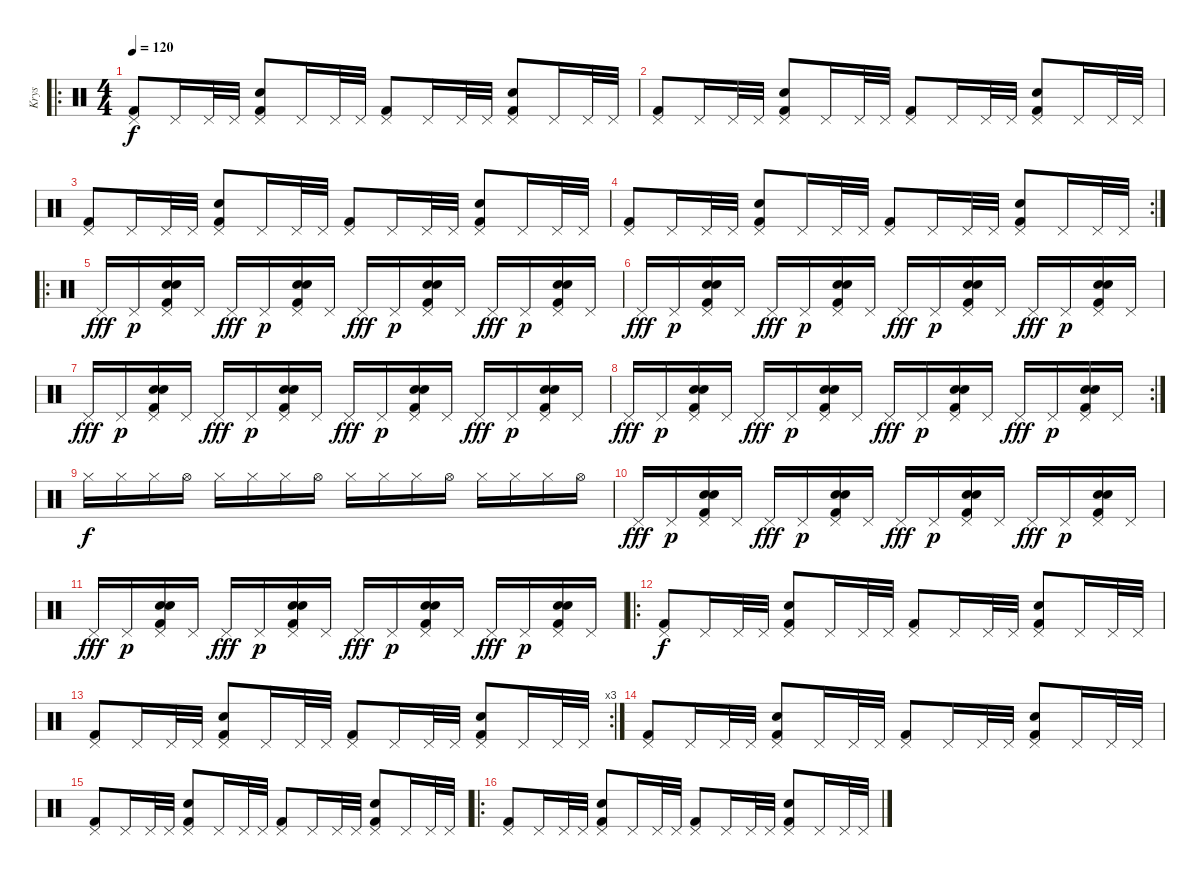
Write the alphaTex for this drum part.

\track ("Krys" "Krys") {instrument percussion}
\staff {score}
\articulation defaults
\ro
\ts (4 4)
\tempo 120
\clef neutral
\ks c
("Pedal Hi-Hat (hit)" "Kick (hit) 2").8{dy f} "Pedal Hi-Hat (hit)".16 "Pedal Hi-Hat (hit)".32 "Pedal Hi-Hat (hit)".32 ("Pedal Hi-Hat (hit)" "Snare (hit) 2" "Kick (hit) 2").8 "Pedal Hi-Hat (hit)".16 "Pedal Hi-Hat (hit)".32 "Pedal Hi-Hat (hit)".32 ("Pedal Hi-Hat (hit)" "Kick (hit) 2").8 "Pedal Hi-Hat (hit)".16 "Pedal Hi-Hat (hit)".32 "Pedal Hi-Hat (hit)".32 ("Pedal Hi-Hat (hit)" "Snare (hit) 2" "Kick (hit) 2").8 "Pedal Hi-Hat (hit)".16 "Pedal Hi-Hat (hit)".32 "Pedal Hi-Hat (hit)".32 |
("Pedal Hi-Hat (hit)" "Kick (hit) 2").8 "Pedal Hi-Hat (hit)".16 "Pedal Hi-Hat (hit)".32 "Pedal Hi-Hat (hit)".32 ("Pedal Hi-Hat (hit)" "Snare (hit) 2" "Kick (hit) 2").8 "Pedal Hi-Hat (hit)".16 "Pedal Hi-Hat (hit)".32 "Pedal Hi-Hat (hit)".32 ("Pedal Hi-Hat (hit)" "Kick (hit) 2").8 "Pedal Hi-Hat (hit)".16 "Pedal Hi-Hat (hit)".32 "Pedal Hi-Hat (hit)".32 ("Pedal Hi-Hat (hit)" "Snare (hit) 2" "Kick (hit) 2").8 "Pedal Hi-Hat (hit)".16 "Pedal Hi-Hat (hit)".32 "Pedal Hi-Hat (hit)".32 |
("Pedal Hi-Hat (hit)" "Kick (hit) 2").8 "Pedal Hi-Hat (hit)".16 "Pedal Hi-Hat (hit)".32 "Pedal Hi-Hat (hit)".32 ("Pedal Hi-Hat (hit)" "Snare (hit) 2" "Kick (hit) 2").8 "Pedal Hi-Hat (hit)".16 "Pedal Hi-Hat (hit)".32 "Pedal Hi-Hat (hit)".32 ("Pedal Hi-Hat (hit)" "Kick (hit) 2").8 "Pedal Hi-Hat (hit)".16 "Pedal Hi-Hat (hit)".32 "Pedal Hi-Hat (hit)".32 ("Pedal Hi-Hat (hit)" "Snare (hit) 2" "Kick (hit) 2").8 "Pedal Hi-Hat (hit)".16 "Pedal Hi-Hat (hit)".32 "Pedal Hi-Hat (hit)".32 |
\rc 2
("Pedal Hi-Hat (hit)" "Kick (hit) 2").8 "Pedal Hi-Hat (hit)".16 "Pedal Hi-Hat (hit)".32 "Pedal Hi-Hat (hit)".32 ("Pedal Hi-Hat (hit)" "Snare (hit) 2" "Kick (hit) 2").8 "Pedal Hi-Hat (hit)".16 "Pedal Hi-Hat (hit)".32 "Pedal Hi-Hat (hit)".32 ("Pedal Hi-Hat (hit)" "Kick (hit) 2").8 "Pedal Hi-Hat (hit)".16 "Pedal Hi-Hat (hit)".32 "Pedal Hi-Hat (hit)".32 ("Pedal Hi-Hat (hit)" "Snare (hit) 2" "Kick (hit) 2").8 "Pedal Hi-Hat (hit)".16 "Pedal Hi-Hat (hit)".32 "Pedal Hi-Hat (hit)".32 |
\ro "Pedal Hi-Hat (hit)".16{dy fff} "Pedal Hi-Hat (hit)".16{dy p}
("Pedal Hi-Hat (hit)" "Kick (hit) 2" "Snare (hit) 2" "Snare (hit) 2").16 "Pedal Hi-Hat (hit)".16 "Pedal Hi-Hat (hit)".16{dy fff} "Pedal Hi-Hat (hit)".16{dy p} ("Pedal Hi-Hat (hit)" "Kick (hit) 2" "Snare (hit) 2" "Snare (hit) 2").16 "Pedal Hi-Hat (hit)".16 "Pedal Hi-Hat (hit)".16{dy fff} "Pedal Hi-Hat (hit)".16{dy p} ("Pedal Hi-Hat (hit)" "Kick (hit) 2" "Snare (hit) 2" "Snare (hit) 2").16 "Pedal Hi-Hat (hit)".16 "Pedal Hi-Hat (hit)".16{dy fff} "Pedal Hi-Hat (hit)".16{dy p} ("Pedal Hi-Hat (hit)" "Kick (hit) 2" "Snare (hit) 2" "Snare (hit) 2").16 "Pedal Hi-Hat (hit)".16 |
"Pedal Hi-Hat (hit)".16{dy fff} "Pedal Hi-Hat (hit)".16{dy p} ("Pedal Hi-Hat (hit)" "Kick (hit) 2" "Snare (hit) 2" "Snare (hit) 2").16 "Pedal Hi-Hat (hit)".16 "Pedal Hi-Hat (hit)".16{dy fff} "Pedal Hi-Hat (hit)".16{dy p} ("Pedal Hi-Hat (hit)" "Kick (hit) 2" "Snare (hit) 2" "Snare (hit) 2").16 "Pedal Hi-Hat (hit)".16 "Pedal Hi-Hat (hit)".16{dy fff} "Pedal Hi-Hat (hit)".16{dy p} ("Pedal Hi-Hat (hit)" "Kick (hit) 2" "Snare (hit) 2" "Snare (hit) 2").16 "Pedal Hi-Hat (hit)".16 "Pedal Hi-Hat (hit)".16{dy fff} "Pedal Hi-Hat (hit)".16{dy p} ("Pedal Hi-Hat (hit)" "Kick (hit) 2" "Snare (hit) 2" "Snare (hit) 2").16 "Pedal Hi-Hat (hit)".16 |
"Pedal Hi-Hat (hit)".16{dy fff} "Pedal Hi-Hat (hit)".16{dy p} ("Pedal Hi-Hat (hit)" "Kick (hit) 2" "Snare (hit) 2" "Snare (hit) 2").16 "Pedal Hi-Hat (hit)".16 "Pedal Hi-Hat (hit)".16{dy fff} "Pedal Hi-Hat (hit)".16{dy p} ("Pedal Hi-Hat (hit)" "Kick (hit) 2" "Snare (hit) 2" "Snare (hit) 2").16 "Pedal Hi-Hat (hit)".16 "Pedal Hi-Hat (hit)".16{dy fff} "Pedal Hi-Hat (hit)".16{dy p} ("Pedal Hi-Hat (hit)" "Kick (hit) 2" "Snare (hit) 2" "Snare (hit) 2").16 "Pedal Hi-Hat (hit)".16 "Pedal Hi-Hat (hit)".16{dy fff} "Pedal Hi-Hat (hit)".16{dy p} ("Pedal Hi-Hat (hit)" "Kick (hit) 2" "Snare (hit) 2" "Snare (hit) 2").16 "Pedal Hi-Hat (hit)".16 |
\rc 2 "Pedal Hi-Hat (hit)".16{dy fff} "Pedal Hi-Hat (hit)".16{dy p}
("Pedal Hi-Hat (hit)" "Kick (hit) 2" "Snare (hit) 2" "Snare (hit) 2").16 "Pedal Hi-Hat (hit)".16 "Pedal Hi-Hat (hit)".16{dy fff} "Pedal Hi-Hat (hit)".16{dy p} ("Pedal Hi-Hat (hit)" "Kick (hit) 2" "Snare (hit) 2" "Snare (hit) 2").16 "Pedal Hi-Hat (hit)".16 "Pedal Hi-Hat (hit)".16{dy fff} "Pedal Hi-Hat (hit)".16{dy p} ("Pedal Hi-Hat (hit)" "Kick (hit) 2" "Snare (hit) 2" "Snare (hit) 2").16 "Pedal Hi-Hat (hit)".16 "Pedal Hi-Hat (hit)".16{dy fff} "Pedal Hi-Hat (hit)".16{dy p} ("Pedal Hi-Hat (hit)" "Kick (hit) 2" "Snare (hit) 2" "Snare (hit) 2").16 "Pedal Hi-Hat (hit)".16 |
"Hi-Hat (closed)".16{dy f} "Hi-Hat (closed)".16 "Hi-Hat (closed)".16 "Hi-Hat (open)".16 "Hi-Hat (closed)".16 "Hi-Hat (closed)".16 "Hi-Hat (closed)".16 "Hi-Hat (open)".16 "Hi-Hat (closed)".16 "Hi-Hat (closed)".16 "Hi-Hat (closed)".16 "Hi-Hat (open)".16 "Hi-Hat (closed)".16 "Hi-Hat (closed)".16 "Hi-Hat (closed)".16 "Hi-Hat (open)".16 |
"Pedal Hi-Hat (hit)".16{dy fff} "Pedal Hi-Hat (hit)".16{dy p} ("Pedal Hi-Hat (hit)" "Kick (hit) 2" "Snare (hit) 2" "Snare (hit) 2").16 "Pedal Hi-Hat (hit)".16 "Pedal Hi-Hat (hit)".16{dy fff} "Pedal Hi-Hat (hit)".16{dy p} ("Pedal Hi-Hat (hit)" "Kick (hit) 2" "Snare (hit) 2" "Snare (hit) 2").16 "Pedal Hi-Hat (hit)".16 "Pedal Hi-Hat (hit)".16{dy fff} "Pedal Hi-Hat (hit)".16{dy p} ("Pedal Hi-Hat (hit)" "Kick (hit) 2" "Snare (hit) 2" "Snare (hit) 2").16 "Pedal Hi-Hat (hit)".16 "Pedal Hi-Hat (hit)".16{dy fff} "Pedal Hi-Hat (hit)".16{dy p} ("Pedal Hi-Hat (hit)" "Kick (hit) 2" "Snare (hit) 2" "Snare (hit) 2").16 "Pedal Hi-Hat (hit)".16 |
"Pedal Hi-Hat (hit)".16{dy fff} "Pedal Hi-Hat (hit)".16{dy p} ("Pedal Hi-Hat (hit)" "Kick (hit) 2" "Snare (hit) 2" "Snare (hit) 2").16 "Pedal Hi-Hat (hit)".16 "Pedal Hi-Hat (hit)".16{dy fff} "Pedal Hi-Hat (hit)".16{dy p} ("Pedal Hi-Hat (hit)" "Kick (hit) 2" "Snare (hit) 2" "Snare (hit) 2").16 "Pedal Hi-Hat (hit)".16 "Pedal Hi-Hat (hit)".16{dy fff} "Pedal Hi-Hat (hit)".16{dy p} ("Pedal Hi-Hat (hit)" "Kick (hit) 2" "Snare (hit) 2" "Snare (hit) 2").16 "Pedal Hi-Hat (hit)".16 "Pedal Hi-Hat (hit)".16{dy fff} "Pedal Hi-Hat (hit)".16{dy p} ("Pedal Hi-Hat (hit)" "Kick (hit) 2" "Snare (hit) 2" "Snare (hit) 2").16 "Pedal Hi-Hat (hit)".16 |
\ro
("Pedal Hi-Hat (hit)" "Kick (hit) 2").8{dy f} "Pedal Hi-Hat (hit)".16 "Pedal Hi-Hat (hit)".32 "Pedal Hi-Hat (hit)".32 ("Pedal Hi-Hat (hit)" "Snare (hit) 2" "Kick (hit) 2").8 "Pedal Hi-Hat (hit)".16 "Pedal Hi-Hat (hit)".32 "Pedal Hi-Hat (hit)".32 ("Pedal Hi-Hat (hit)" "Kick (hit) 2").8 "Pedal Hi-Hat (hit)".16 "Pedal Hi-Hat (hit)".32 "Pedal Hi-Hat (hit)".32 ("Pedal Hi-Hat (hit)" "Snare (hit) 2" "Kick (hit) 2").8 "Pedal Hi-Hat (hit)".16 "Pedal Hi-Hat (hit)".32 "Pedal Hi-Hat (hit)".32 |
\rc 3
("Pedal Hi-Hat (hit)" "Kick (hit) 2").8 "Pedal Hi-Hat (hit)".16 "Pedal Hi-Hat (hit)".32 "Pedal Hi-Hat (hit)".32 ("Pedal Hi-Hat (hit)" "Snare (hit) 2" "Kick (hit) 2").8 "Pedal Hi-Hat (hit)".16 "Pedal Hi-Hat (hit)".32 "Pedal Hi-Hat (hit)".32 ("Pedal Hi-Hat (hit)" "Kick (hit) 2").8 "Pedal Hi-Hat (hit)".16 "Pedal Hi-Hat (hit)".32 "Pedal Hi-Hat (hit)".32 ("Pedal Hi-Hat (hit)" "Snare (hit) 2" "Kick (hit) 2").8 "Pedal Hi-Hat (hit)".16 "Pedal Hi-Hat (hit)".32 "Pedal Hi-Hat (hit)".32 |
("Pedal Hi-Hat (hit)" "Kick (hit) 2").8 "Pedal Hi-Hat (hit)".16 "Pedal Hi-Hat (hit)".32 "Pedal Hi-Hat (hit)".32 ("Pedal Hi-Hat (hit)" "Snare (hit) 2" "Kick (hit) 2").8 "Pedal Hi-Hat (hit)".16 "Pedal Hi-Hat (hit)".32 "Pedal Hi-Hat (hit)".32 ("Pedal Hi-Hat (hit)" "Kick (hit) 2").8 "Pedal Hi-Hat (hit)".16 "Pedal Hi-Hat (hit)".32 "Pedal Hi-Hat (hit)".32 ("Pedal Hi-Hat (hit)" "Snare (hit) 2" "Kick (hit) 2").8 "Pedal Hi-Hat (hit)".16 "Pedal Hi-Hat (hit)".32 "Pedal Hi-Hat (hit)".32 |
("Pedal Hi-Hat (hit)" "Kick (hit) 2").8 "Pedal Hi-Hat (hit)".16 "Pedal Hi-Hat (hit)".32 "Pedal Hi-Hat (hit)".32 ("Pedal Hi-Hat (hit)" "Snare (hit) 2" "Kick (hit) 2").8 "Pedal Hi-Hat (hit)".16 "Pedal Hi-Hat (hit)".32 "Pedal Hi-Hat (hit)".32 ("Pedal Hi-Hat (hit)" "Kick (hit) 2").8 "Pedal Hi-Hat (hit)".16 "Pedal Hi-Hat (hit)".32 "Pedal Hi-Hat (hit)".32 ("Pedal Hi-Hat (hit)" "Snare (hit) 2" "Kick (hit) 2").8 "Pedal Hi-Hat (hit)".16 "Pedal Hi-Hat (hit)".32 "Pedal Hi-Hat (hit)".32 |
\ro
("Pedal Hi-Hat (hit)" "Kick (hit) 2").8 "Pedal Hi-Hat (hit)".16 "Pedal Hi-Hat (hit)".32 "Pedal Hi-Hat (hit)".32 ("Pedal Hi-Hat (hit)" "Snare (hit) 2" "Kick (hit) 2").8 "Pedal Hi-Hat (hit)".16 "Pedal Hi-Hat (hit)".32 "Pedal Hi-Hat (hit)".32 ("Pedal Hi-Hat (hit)" "Kick (hit) 2").8 "Pedal Hi-Hat (hit)".16 "Pedal Hi-Hat (hit)".32 "Pedal Hi-Hat (hit)".32 ("Pedal Hi-Hat (hit)" "Snare (hit) 2" "Kick (hit) 2").8 "Pedal Hi-Hat (hit)".16 "Pedal Hi-Hat (hit)".32 "Pedal Hi-Hat (hit)".32
